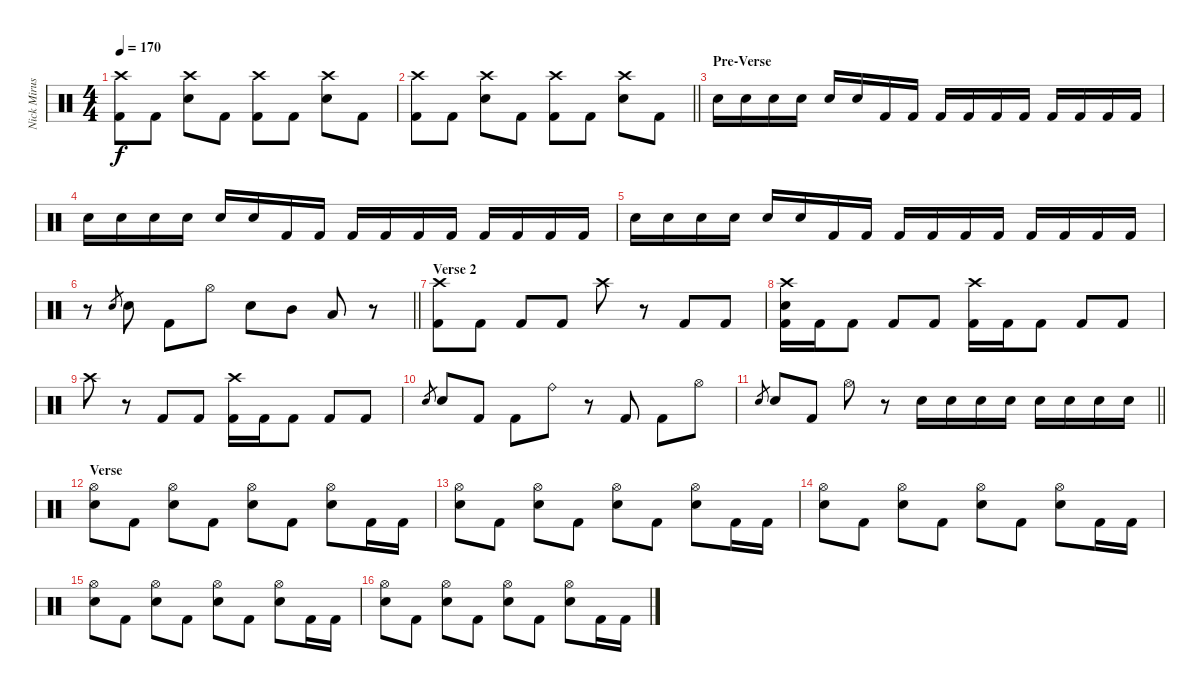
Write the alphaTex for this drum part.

\track ("Nick Mirusso - Drums" "Nick Mirus") {instrument percussion}
\staff {score}
\articulation defaults
\ts (4 4)
\tempo 170
\clef neutral
\ks c
("Crash high (hit)" "Kick (hit) 2").8{dy f} "Kick (hit) 2".8 ("Crash high (hit)" "Electric Snare (hit)").8 "Kick (hit) 2".8 ("Crash high (hit)" "Kick (hit) 2").8 "Kick (hit) 2".8 ("Crash high (hit)" "Electric Snare (hit)").8 "Kick (hit) 2".8 |
\barLineRight lightlight
("Crash high (hit)" "Kick (hit) 2").8 "Kick (hit) 2".8 ("Crash high (hit)" "Electric Snare (hit)").8 "Kick (hit) 2".8 ("Crash high (hit)" "Kick (hit) 2").8 "Kick (hit) 2".8 ("Crash high (hit)" "Electric Snare (hit)").8 "Kick (hit) 2".8 |
\section ("" "Pre-Verse")
"Electric Snare (hit)".16 "Electric Snare (hit)".16 "Electric Snare (hit)".16 "Electric Snare (hit)".16 "Electric Snare (hit)".16 "Electric Snare (hit)".16 "Kick (hit) 2".16 "Kick (hit) 2".16 "Kick (hit) 2".16 "Kick (hit) 2".16 "Kick (hit) 2".16 "Kick (hit) 2".16 "Kick (hit) 2".16 "Kick (hit) 2".16 "Kick (hit) 2".16 "Kick (hit) 2".16 |
"Electric Snare (hit)".16 "Electric Snare (hit)".16 "Electric Snare (hit)".16 "Electric Snare (hit)".16 "Electric Snare (hit)".16 "Electric Snare (hit)".16 "Kick (hit) 2".16 "Kick (hit) 2".16 "Kick (hit) 2".16 "Kick (hit) 2".16 "Kick (hit) 2".16 "Kick (hit) 2".16 "Kick (hit) 2".16 "Kick (hit) 2".16 "Kick (hit) 2".16 "Kick (hit) 2".16 |
"Electric Snare (hit)".16 "Electric Snare (hit)".16 "Electric Snare (hit)".16 "Electric Snare (hit)".16 "Electric Snare (hit)".16 "Electric Snare (hit)".16 "Kick (hit) 2".16 "Kick (hit) 2".16 "Kick (hit) 2".16 "Kick (hit) 2".16 "Kick (hit) 2".16 "Kick (hit) 2".16 "Kick (hit) 2".16 "Kick (hit) 2".16 "Kick (hit) 2".16 "Kick (hit) 2".16 |
\barLineRight lightlight
r.8 "Electric Snare (hit)".8{gr} "Electric Snare (hit)".8 "Kick (hit) 2".8 "Hi-Hat (open)".8 "Electric Snare (hit)".8 "Mid Tom (hit)".8 "Low Tom (hit)".8 r.8 |
\section ("" "Verse 2")
("Crash high (hit)" "Kick (hit) 2").8 "Kick (hit) 2".8 "Kick (hit) 2".8 "Kick (hit) 2".8 "Crash high (hit)".8 r.8 "Kick (hit) 2".8 "Kick (hit) 2".8 |
("Crash high (hit)" "Electric Snare (hit)" "Kick (hit) 2").16 "Kick (hit) 2".16 "Kick (hit) 2".8 "Kick (hit) 2".8 "Kick (hit) 2".8 ("Crash high (hit)" "Kick (hit) 2").16 "Kick (hit) 2".16 "Kick (hit) 2".8 "Kick (hit) 2".8 "Kick (hit) 2".8 |
"Crash high (hit)".8 r.8 "Kick (hit) 2".8 "Kick (hit) 2".8 ("Crash high (hit)" "Kick (hit) 2").16 "Kick (hit) 2".16 "Kick (hit) 2".8 "Kick (hit) 2".8 "Kick (hit) 2".8 |
"Electric Snare (hit)".8{gr} "Electric Snare (hit)".8 "Kick (hit) 2".8 "Kick (hit) 2".8 "Ride (bell)".8 r.8 "Kick (hit) 2".8 "Kick (hit) 2".8 "Hi-Hat (open)".8 |
\barLineRight lightlight "Electric Snare (hit)".8{gr} "Electric Snare (hit)".8 "Kick (hit) 2".8 "Hi-Hat (open)".8
r.8 "Electric Snare (hit)".16 "Electric Snare (hit)".16 "Electric Snare (hit)".16 "Electric Snare (hit)".16 "Electric Snare (hit)".16 "Electric Snare (hit)".16 "Electric Snare (hit)".16 "Electric Snare (hit)".16 |
\section ("" "Verse")
("Hi-Hat (open)" "Electric Snare (hit)").8 "Kick (hit) 2".8 ("Hi-Hat (open)" "Electric Snare (hit)").8 "Kick (hit) 2".8 ("Hi-Hat (open)" "Electric Snare (hit)").8 "Kick (hit) 2".8 ("Hi-Hat (open)" "Electric Snare (hit)").8 "Kick (hit) 2".16 "Kick (hit) 2".16 |
("Hi-Hat (open)" "Electric Snare (hit)").8 "Kick (hit) 2".8 ("Hi-Hat (open)" "Electric Snare (hit)").8 "Kick (hit) 2".8 ("Hi-Hat (open)" "Electric Snare (hit)").8 "Kick (hit) 2".8 ("Hi-Hat (open)" "Electric Snare (hit)").8 "Kick (hit) 2".16 "Kick (hit) 2".16 |
("Hi-Hat (open)" "Electric Snare (hit)").8 "Kick (hit) 2".8 ("Hi-Hat (open)" "Electric Snare (hit)").8 "Kick (hit) 2".8 ("Hi-Hat (open)" "Electric Snare (hit)").8 "Kick (hit) 2".8 ("Hi-Hat (open)" "Electric Snare (hit)").8 "Kick (hit) 2".16 "Kick (hit) 2".16 |
("Hi-Hat (open)" "Electric Snare (hit)").8 "Kick (hit) 2".8 ("Hi-Hat (open)" "Electric Snare (hit)").8 "Kick (hit) 2".8 ("Hi-Hat (open)" "Electric Snare (hit)").8 "Kick (hit) 2".8 ("Hi-Hat (open)" "Electric Snare (hit)").8 "Kick (hit) 2".16 "Kick (hit) 2".16 |
("Hi-Hat (open)" "Electric Snare (hit)").8 "Kick (hit) 2".8 ("Hi-Hat (open)" "Electric Snare (hit)").8 "Kick (hit) 2".8 ("Hi-Hat (open)" "Electric Snare (hit)").8 "Kick (hit) 2".8 ("Hi-Hat (open)" "Electric Snare (hit)").8 "Kick (hit) 2".16 "Kick (hit) 2".16
